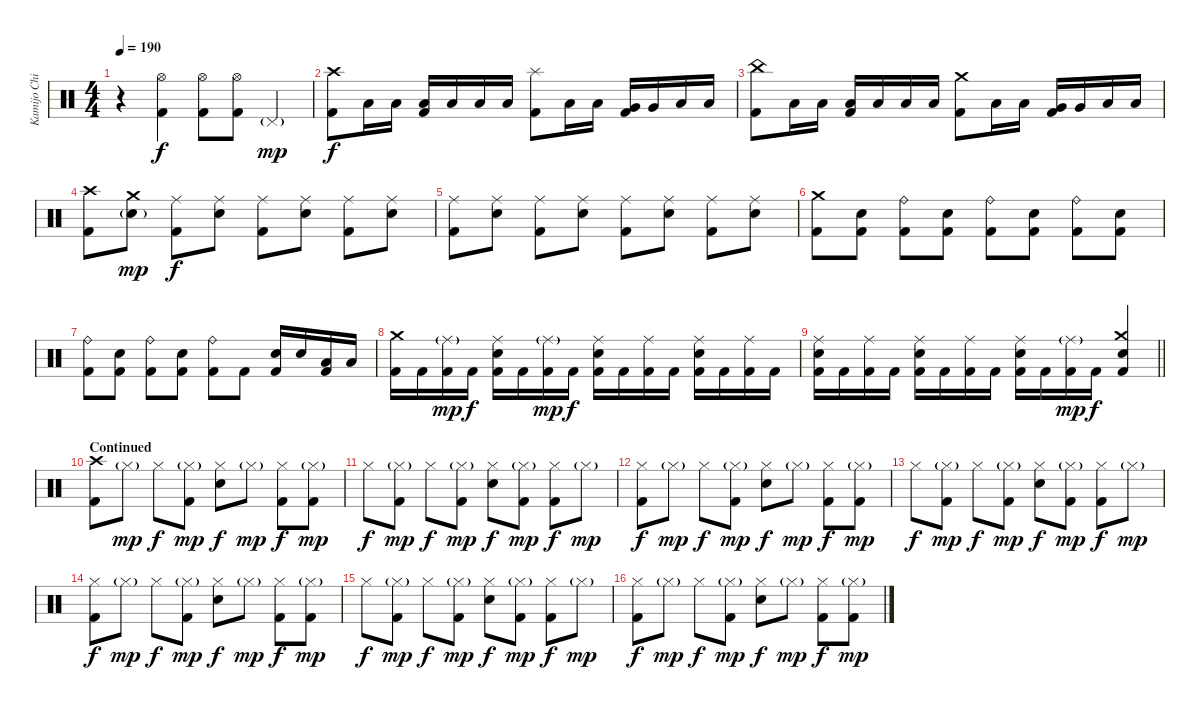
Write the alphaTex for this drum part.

\track ("Kamijo Chihiro" "Kamijo Chi") {instrument percussion}
\staff {score}
\articulation defaults
\ts (4 4)
\tempo 190
\clef neutral
\ks c
r.4{dy f} ("Hi-Hat (open)" "Kick (hit) 2").4 ("Hi-Hat (open)" "Kick (hit) 2").8 ("Hi-Hat (open)" "Kick (hit) 2").8 "Pedal Hi-Hat (hit)"{g}.4{dy mp} |
("Crash high (hit)" "Kick (hit) 2").8{dy f} "Low Tom (hit)".16 "Low Tom (hit)".16 ("Low Tom (hit)" "Kick (hit) 2").16 "Low Tom (hit)".16 "Low Tom (hit)".16 "Low Tom (hit)".16 ("Splash (hit)" "Kick (hit) 2").8 "Low Tom (hit)".16 "Low Tom (hit)".16 ("Very Low Tom (hit)" "Kick (hit) 2").16 "Very Low Tom (hit)".16 "Low Floor Tom (hit)".16 "Low Floor Tom (hit)".16 |
("China (hit)" "Kick (hit) 2").8 "Low Tom (hit)".16 "Low Tom (hit)".16 ("Low Tom (hit)" "Kick (hit) 2").16 "Low Tom (hit)".16 "Low Tom (hit)".16 "Low Tom (hit)".16 ("Crash medium (hit)" "Kick (hit) 2").8 "Low Tom (hit)".16 "Low Tom (hit)".16 ("Very Low Tom (hit)" "Kick (hit) 2").16 "Very Low Tom (hit)".16 "Low Floor Tom (hit)".16 "Low Floor Tom (hit)".16 |
("Crash high (hit)" "Kick (hit) 2").8 ("Crash medium (hit)" "Snare (hit) 2"{g}).8{dy mp} ("Ride (middle)" "Kick (hit) 2").8{dy f} ("Ride (middle)" "Snare (hit) 2").8 ("Ride (middle)" "Kick (hit) 2").8 ("Ride (middle)" "Snare (hit) 2").8 ("Ride (middle)" "Kick (hit) 2").8 ("Ride (middle)" "Snare (hit) 2").8 |
("Ride (middle)" "Kick (hit) 2").8 ("Ride (middle)" "Snare (hit) 2").8 ("Ride (middle)" "Kick (hit) 2").8 ("Ride (middle)" "Snare (hit) 2").8 ("Ride (middle)" "Kick (hit) 2").8 ("Ride (middle)" "Snare (hit) 2").8 ("Ride (middle)" "Kick (hit) 2").8 ("Ride (middle)" "Snare (hit) 2").8 |
("Crash medium (hit)" "Kick (hit) 2").8 ("Snare (hit) 2" "Kick (hit) 2").8 ("Ride (bell)" "Kick (hit) 2").8 ("Snare (hit) 2" "Kick (hit) 2").8 ("Ride (bell)" "Kick (hit) 2").8 ("Snare (hit) 2" "Kick (hit) 2").8 ("Ride (bell)" "Kick (hit) 2").8 ("Snare (hit) 2" "Kick (hit) 2").8 |
("Ride (bell)" "Kick (hit) 2").8 ("Snare (hit) 2" "Kick (hit) 2").8 ("Ride (bell)" "Kick (hit) 2").8 ("Snare (hit) 2" "Kick (hit) 2").8 ("Ride (bell)" "Kick (hit) 2").8 "Kick (hit) 2".8 ("Snare (hit) 2" "Kick (hit) 2").16 "Snare (hit) 2".16 ("Low Tom (hit)" "Kick (hit) 2").16 "Low Tom (hit)".16 |
("Crash medium (hit)" "Kick (hit) 2").16 "Kick (hit) 2".16 ("Ride (middle)"{g} "Kick (hit) 2").16{dy mp} "Kick (hit) 2".16{dy f} ("Ride (middle)" "Snare (hit) 2" "Kick (hit) 2").16 "Kick (hit) 2".16 ("Ride (middle)"{g} "Kick (hit) 2").16{dy mp} "Kick (hit) 2".16{dy f} ("Ride (middle)" "Snare (hit) 2" "Kick (hit) 2").16 "Kick (hit) 2".16 ("Ride (middle)" "Kick (hit) 2").16 "Kick (hit) 2".16 ("Ride (middle)" "Snare (hit) 2" "Kick (hit) 2").16 "Kick (hit) 2".16 ("Ride (middle)" "Kick (hit) 2").16 "Kick (hit) 2".16 |
\barLineRight lightlight
("Ride (middle)" "Snare (hit) 2" "Kick (hit) 2").16 "Kick (hit) 2".16 ("Ride (middle)" "Kick (hit) 2").16 "Kick (hit) 2".16 ("Ride (middle)" "Snare (hit) 2" "Kick (hit) 2").16 "Kick (hit) 2".16 ("Ride (middle)" "Kick (hit) 2").16 "Kick (hit) 2".16 ("Ride (middle)" "Snare (hit) 2" "Kick (hit) 2").16 "Kick (hit) 2".16 ("Ride (middle)"{g} "Kick (hit) 2").16{dy mp} "Kick (hit) 2".16{dy f} ("Crash medium (hit)" "Snare (hit) 2" "Kick (hit) 2").4 |
\section ("" "Continued")
("Crash high (hit)" "Kick (hit) 2").8 "Hi-Hat (closed)"{g}.8{dy mp} "Hi-Hat (closed)".8{dy f} ("Hi-Hat (closed)"{g} "Kick (hit) 2").8{dy mp} ("Hi-Hat (closed)" "Snare (hit) 2").8{dy f} "Hi-Hat (closed)"{g}.8{dy mp} ("Hi-Hat (closed)" "Kick (hit) 2").8{dy f} ("Hi-Hat (closed)"{g} "Kick (hit) 2").8{dy mp} |
"Hi-Hat (closed)".8{dy f} ("Hi-Hat (closed)"{g} "Kick (hit) 2").8{dy mp} "Hi-Hat (closed)".8{dy f} ("Hi-Hat (closed)"{g} "Kick (hit) 2").8{dy mp} ("Hi-Hat (closed)" "Snare (hit) 2").8{dy f} ("Hi-Hat (closed)"{g} "Kick (hit) 2").8{dy mp} ("Hi-Hat (closed)" "Kick (hit) 2").8{dy f} "Hi-Hat (closed)"{g}.8{dy mp} |
("Hi-Hat (closed)" "Kick (hit) 2").8{dy f} "Hi-Hat (closed)"{g}.8{dy mp} "Hi-Hat (closed)".8{dy f} ("Hi-Hat (closed)"{g} "Kick (hit) 2").8{dy mp} ("Hi-Hat (closed)" "Snare (hit) 2").8{dy f} "Hi-Hat (closed)"{g}.8{dy mp} ("Hi-Hat (closed)" "Kick (hit) 2").8{dy f} ("Hi-Hat (closed)"{g} "Kick (hit) 2").8{dy mp} |
"Hi-Hat (closed)".8{dy f} ("Hi-Hat (closed)"{g} "Kick (hit) 2").8{dy mp} "Hi-Hat (closed)".8{dy f} ("Hi-Hat (closed)"{g} "Kick (hit) 2").8{dy mp} ("Hi-Hat (closed)" "Snare (hit) 2").8{dy f} ("Hi-Hat (closed)"{g} "Kick (hit) 2").8{dy mp} ("Hi-Hat (closed)" "Kick (hit) 2").8{dy f} "Hi-Hat (closed)"{g}.8{dy mp} |
("Hi-Hat (closed)" "Kick (hit) 2").8{dy f} "Hi-Hat (closed)"{g}.8{dy mp} "Hi-Hat (closed)".8{dy f} ("Hi-Hat (closed)"{g} "Kick (hit) 2").8{dy mp} ("Hi-Hat (closed)" "Snare (hit) 2").8{dy f} "Hi-Hat (closed)"{g}.8{dy mp} ("Hi-Hat (closed)" "Kick (hit) 2").8{dy f} ("Hi-Hat (closed)"{g} "Kick (hit) 2").8{dy mp} |
"Hi-Hat (closed)".8{dy f} ("Hi-Hat (closed)"{g} "Kick (hit) 2").8{dy mp} "Hi-Hat (closed)".8{dy f} ("Hi-Hat (closed)"{g} "Kick (hit) 2").8{dy mp} ("Hi-Hat (closed)" "Snare (hit) 2").8{dy f} ("Hi-Hat (closed)"{g} "Kick (hit) 2").8{dy mp} ("Hi-Hat (closed)" "Kick (hit) 2").8{dy f} "Hi-Hat (closed)"{g}.8{dy mp} |
("Hi-Hat (closed)" "Kick (hit) 2").8{dy f} "Hi-Hat (closed)"{g}.8{dy mp} "Hi-Hat (closed)".8{dy f} ("Hi-Hat (closed)"{g} "Kick (hit) 2").8{dy mp} ("Hi-Hat (closed)" "Snare (hit) 2").8{dy f} "Hi-Hat (closed)"{g}.8{dy mp} ("Hi-Hat (closed)" "Kick (hit) 2").8{dy f} ("Hi-Hat (closed)"{g} "Kick (hit) 2").8{dy mp}
